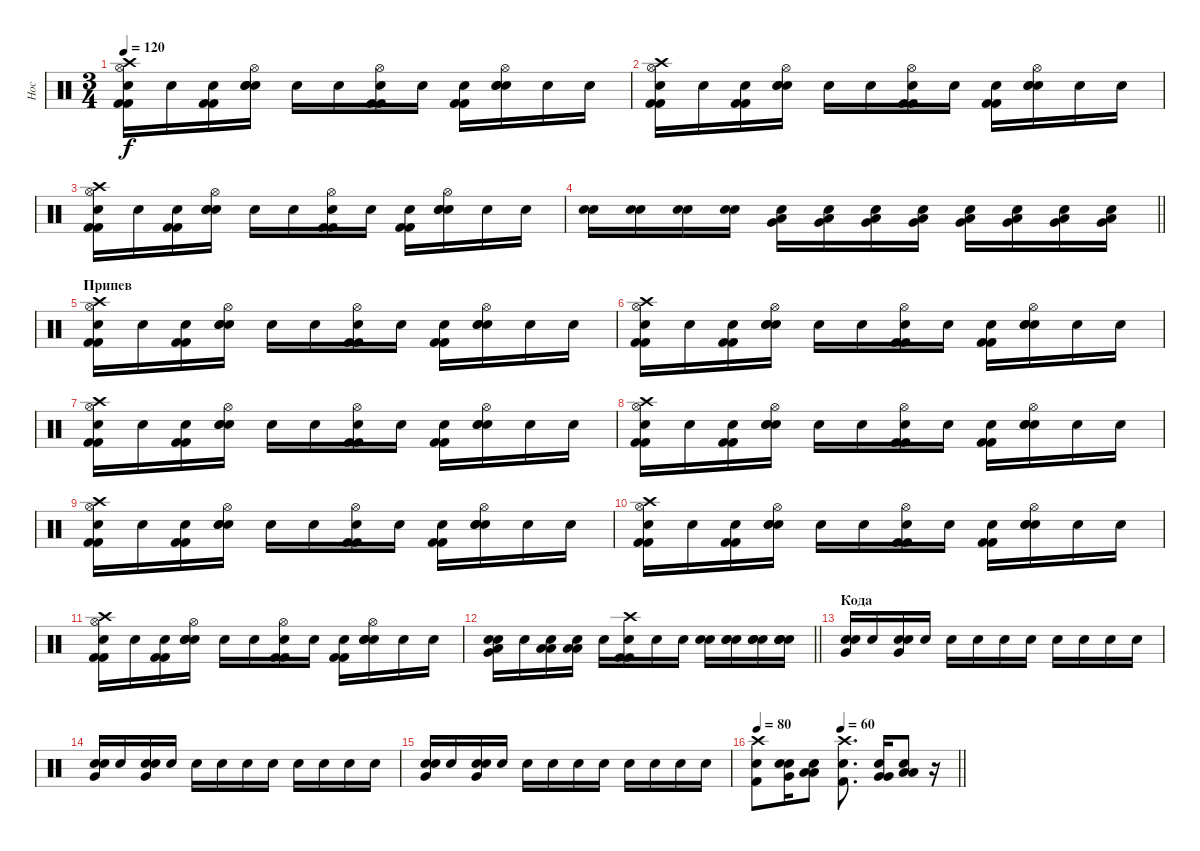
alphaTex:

\track ("Нос" "Нос") {instrument percussion}
\staff {score}
\articulation defaults
\ts (3 4)
\tempo 120
\clef neutral
\ks c
("Crash high (hit)" "Hi-Hat (open)" "Kick (hit) 2" "Kick (hit) 2" "Snare (hit)").16{dy f} "Snare (hit)".16 ("Kick (hit) 2" "Kick (hit) 2" "Snare (hit)").16 ("Hi-Hat (open)" "Snare (hit) 2" "Snare (hit) 2" "Snare (hit)").16 "Snare (hit)".16 "Snare (hit)".16 ("Hi-Hat (open)" "Kick (hit) 2" "Kick (hit) 2" "Snare (hit)").16 "Snare (hit)".16 ("Kick (hit) 2" "Kick (hit) 2" "Snare (hit)").16 ("Hi-Hat (open)" "Snare (hit) 2" "Snare (hit) 2" "Snare (hit)").16 "Snare (hit)".16 "Snare (hit)".16 |
("Crash high (hit)" "Hi-Hat (open)" "Kick (hit) 2" "Kick (hit) 2" "Snare (hit)").16 "Snare (hit)".16 ("Kick (hit) 2" "Kick (hit) 2" "Snare (hit)").16 ("Hi-Hat (open)" "Snare (hit) 2" "Snare (hit) 2" "Snare (hit)").16 "Snare (hit)".16 "Snare (hit)".16 ("Hi-Hat (open)" "Kick (hit) 2" "Kick (hit) 2" "Snare (hit)").16 "Snare (hit)".16 ("Kick (hit) 2" "Kick (hit) 2" "Snare (hit)").16 ("Hi-Hat (open)" "Snare (hit) 2" "Snare (hit) 2" "Snare (hit)").16 "Snare (hit)".16 "Snare (hit)".16 |
("Crash high (hit)" "Hi-Hat (open)" "Kick (hit) 2" "Kick (hit) 2" "Snare (hit)").16 "Snare (hit)".16 ("Kick (hit) 2" "Kick (hit) 2" "Snare (hit)").16 ("Hi-Hat (open)" "Snare (hit) 2" "Snare (hit) 2" "Snare (hit)").16 "Snare (hit)".16 "Snare (hit)".16 ("Hi-Hat (open)" "Kick (hit) 2" "Kick (hit) 2" "Snare (hit)").16 "Snare (hit)".16 ("Kick (hit) 2" "Kick (hit) 2" "Snare (hit)").16 ("Hi-Hat (open)" "Snare (hit) 2" "Snare (hit) 2" "Snare (hit)").16 "Snare (hit)".16 "Snare (hit)".16 |
\barLineRight lightlight
("Snare (hit) 2" "Snare (hit)").16 ("Snare (hit) 2" "Snare (hit)").16 ("Snare (hit) 2" "Snare (hit)").16 ("Snare (hit) 2" "Snare (hit)").16 ("Very Low Tom (hit)" "Low Tom (hit)" "Snare (hit)").16 ("Very Low Tom (hit)" "Low Tom (hit)" "Snare (hit)").16 ("Very Low Tom (hit)" "Low Tom (hit)" "Snare (hit)").16 ("Very Low Tom (hit)" "Low Tom (hit)" "Snare (hit)").16 ("Low Floor Tom (hit)" "Very Low Tom (hit)" "Snare (hit)").16 ("Low Floor Tom (hit)" "Very Low Tom (hit)" "Snare (hit)").16 ("Low Floor Tom (hit)" "Very Low Tom (hit)" "Snare (hit)").16 ("Low Floor Tom (hit)" "Very Low Tom (hit)" "Snare (hit)").16 |
\section ("" "Припев")
("Crash high (hit)" "Hi-Hat (open)" "Kick (hit) 2" "Kick (hit) 2" "Snare (hit)").16 "Snare (hit)".16 ("Kick (hit) 2" "Kick (hit) 2" "Snare (hit)").16 ("Hi-Hat (open)" "Snare (hit) 2" "Snare (hit) 2" "Snare (hit)").16 "Snare (hit)".16 "Snare (hit)".16 ("Hi-Hat (open)" "Kick (hit) 2" "Kick (hit) 2" "Snare (hit)").16 "Snare (hit)".16 ("Kick (hit) 2" "Kick (hit) 2" "Snare (hit)").16 ("Hi-Hat (open)" "Snare (hit) 2" "Snare (hit) 2" "Snare (hit)").16 "Snare (hit)".16 "Snare (hit)".16 |
("Crash high (hit)" "Hi-Hat (open)" "Kick (hit) 2" "Kick (hit) 2" "Snare (hit)").16 "Snare (hit)".16 ("Kick (hit) 2" "Kick (hit) 2" "Snare (hit)").16 ("Hi-Hat (open)" "Snare (hit) 2" "Snare (hit) 2" "Snare (hit)").16 "Snare (hit)".16 "Snare (hit)".16 ("Hi-Hat (open)" "Kick (hit) 2" "Kick (hit) 2" "Snare (hit)").16 "Snare (hit)".16 ("Kick (hit) 2" "Kick (hit) 2" "Snare (hit)").16 ("Hi-Hat (open)" "Snare (hit) 2" "Snare (hit) 2" "Snare (hit)").16 "Snare (hit)".16 "Snare (hit)".16 |
("Crash high (hit)" "Hi-Hat (open)" "Kick (hit) 2" "Kick (hit) 2" "Snare (hit)").16 "Snare (hit)".16 ("Kick (hit) 2" "Kick (hit) 2" "Snare (hit)").16 ("Hi-Hat (open)" "Snare (hit) 2" "Snare (hit) 2" "Snare (hit)").16 "Snare (hit)".16 "Snare (hit)".16 ("Hi-Hat (open)" "Kick (hit) 2" "Kick (hit) 2" "Snare (hit)").16 "Snare (hit)".16 ("Kick (hit) 2" "Kick (hit) 2" "Snare (hit)").16 ("Hi-Hat (open)" "Snare (hit) 2" "Snare (hit) 2" "Snare (hit)").16 "Snare (hit)".16 "Snare (hit)".16 |
("Crash high (hit)" "Hi-Hat (open)" "Kick (hit) 2" "Kick (hit) 2" "Snare (hit)").16 "Snare (hit)".16 ("Kick (hit) 2" "Kick (hit) 2" "Snare (hit)").16 ("Hi-Hat (open)" "Snare (hit) 2" "Snare (hit) 2" "Snare (hit)").16 "Snare (hit)".16 "Snare (hit)".16 ("Hi-Hat (open)" "Kick (hit) 2" "Kick (hit) 2" "Snare (hit)").16 "Snare (hit)".16 ("Kick (hit) 2" "Kick (hit) 2" "Snare (hit)").16 ("Hi-Hat (open)" "Snare (hit) 2" "Snare (hit) 2" "Snare (hit)").16 "Snare (hit)".16 "Snare (hit)".16 |
("Crash high (hit)" "Hi-Hat (open)" "Kick (hit) 2" "Kick (hit) 2" "Snare (hit)").16 "Snare (hit)".16 ("Kick (hit) 2" "Kick (hit) 2" "Snare (hit)").16 ("Hi-Hat (open)" "Snare (hit) 2" "Snare (hit) 2" "Snare (hit)").16 "Snare (hit)".16 "Snare (hit)".16 ("Hi-Hat (open)" "Kick (hit) 2" "Kick (hit) 2" "Snare (hit)").16 "Snare (hit)".16 ("Kick (hit) 2" "Kick (hit) 2" "Snare (hit)").16 ("Hi-Hat (open)" "Snare (hit) 2" "Snare (hit) 2" "Snare (hit)").16 "Snare (hit)".16 "Snare (hit)".16 |
("Crash high (hit)" "Hi-Hat (open)" "Kick (hit) 2" "Kick (hit) 2" "Snare (hit)").16 "Snare (hit)".16 ("Kick (hit) 2" "Kick (hit) 2" "Snare (hit)").16 ("Hi-Hat (open)" "Snare (hit) 2" "Snare (hit) 2" "Snare (hit)").16 "Snare (hit)".16 "Snare (hit)".16 ("Hi-Hat (open)" "Kick (hit) 2" "Kick (hit) 2" "Snare (hit)").16 "Snare (hit)".16 ("Kick (hit) 2" "Kick (hit) 2" "Snare (hit)").16 ("Hi-Hat (open)" "Snare (hit) 2" "Snare (hit) 2" "Snare (hit)").16 "Snare (hit)".16 "Snare (hit)".16 |
("Crash high (hit)" "Hi-Hat (open)" "Kick (hit) 2" "Kick (hit) 2" "Snare (hit)").16 "Snare (hit)".16 ("Kick (hit) 2" "Kick (hit) 2" "Snare (hit)").16 ("Hi-Hat (open)" "Snare (hit) 2" "Snare (hit) 2" "Snare (hit)").16 "Snare (hit)".16 "Snare (hit)".16 ("Hi-Hat (open)" "Kick (hit) 2" "Kick (hit) 2" "Snare (hit)").16 "Snare (hit)".16 ("Kick (hit) 2" "Kick (hit) 2" "Snare (hit)").16 ("Hi-Hat (open)" "Snare (hit) 2" "Snare (hit) 2" "Snare (hit)").16 "Snare (hit)".16 "Snare (hit)".16 |
\barLineRight lightlight
("Very Low Tom (hit)" "Snare (hit) 2" "Low Tom (hit)" "Snare (hit)").16 "Snare (hit)".16 ("Low Tom (hit)" "Low Tom (hit)" "Snare (hit)").16 ("Low Floor Tom (hit)" "Low Floor Tom (hit)" "Snare (hit)").16 "Snare (hit)".16 ("Crash high (hit)" "Kick (hit) 2" "Kick (hit) 2" "Snare (hit)").16 "Snare (hit)".16 "Snare (hit)".16 ("Snare (hit) 2" "Snare (hit)").16 ("Snare (hit) 2" "Snare (hit) 2" "Snare (hit)").16 ("Snare (hit) 2" "Snare (hit) 2" "Snare (hit)").16 ("Snare (hit) 2" "Snare (hit) 2" "Snare (hit) 2" "Snare (hit)").16 |
\section ("" "Кода")
("Very Low Tom (hit)" "Snare (hit) 2" "Snare (hit)").16 "Snare (hit)".16 ("Very Low Tom (hit)" "Snare (hit) 2" "Snare (hit)").16 "Snare (hit)".16 "Snare (hit)".16 "Snare (hit)".16 "Snare (hit)".16 "Snare (hit)".16 "Snare (hit)".16 "Snare (hit)".16 "Snare (hit)".16 "Snare (hit)".16 |
("Very Low Tom (hit)" "Snare (hit) 2" "Snare (hit)").16 "Snare (hit)".16 ("Very Low Tom (hit)" "Snare (hit) 2" "Snare (hit)").16 "Snare (hit)".16 "Snare (hit)".16 "Snare (hit)".16 "Snare (hit)".16 "Snare (hit)".16 "Snare (hit)".16 "Snare (hit)".16 "Snare (hit)".16 "Snare (hit)".16 |
("Very Low Tom (hit)" "Snare (hit) 2" "Snare (hit)").16 "Snare (hit)".16 ("Very Low Tom (hit)" "Snare (hit) 2" "Snare (hit)").16 "Snare (hit)".16 "Snare (hit)".16 "Snare (hit)".16 "Snare (hit)".16 "Snare (hit)".16 "Snare (hit)".16 "Snare (hit)".16 "Snare (hit)".16 "Snare (hit)".16 |
\tempo 80
\tempo (60 0.4166666666666667)
\barLineRight lightlight
("Crash high (hit)" "Kick (hit) 2" "Snare (hit)").8 ("Snare (hit) 2" "Very Low Tom (hit)" "Snare (hit)").16 ("Low Tom (hit)" "Low Floor Tom (hit)" "Snare (hit)").8 ("Crash high (hit)" "Kick (hit) 2" "Snare (hit)").8{d} ("Very Low Tom (hit)" "Very Low Tom (hit)" "Snare (hit)").16 ("Low Floor Tom (hit)" "Low Tom (hit)" "Snare (hit)").8 r.16
